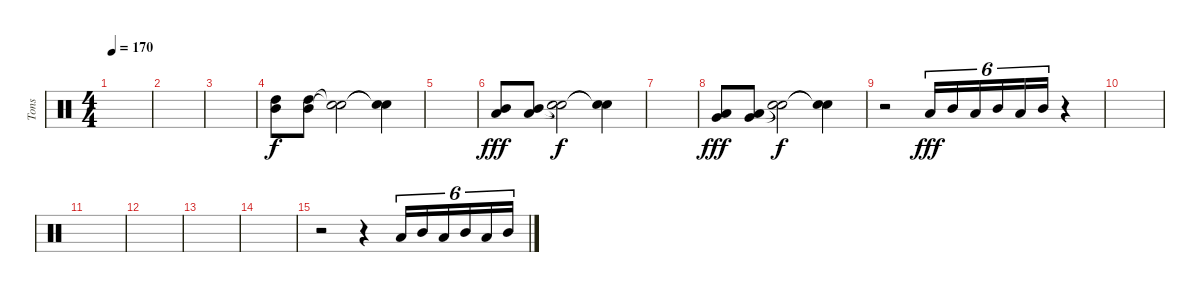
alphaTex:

\track ("Tons" "Tons") {instrument percussion}
\staff {score}
\articulation defaults
\ts (4 4)
\tempo 170
\clef neutral
\ks c
|
|
|
("High Tom (hit)" "Mid Tom (hit)").8 ("High Tom (hit)" "Mid Tom (hit)").8 ("Snare (hit)"{t} "Snare (hit)"{t}).2{dy f} ("Snare (hit)"{t} "Snare (hit)"{t}).4 |
|
("Mid Tom (hit)" "Low Tom (hit)").8{dy fff} ("Mid Tom (hit)" "Low Tom (hit)").8 ("Snare (hit)"{t} "Snare (hit)"{t}).2{dy f} ("Snare (hit)"{t} "Snare (hit)"{t}).4 |
|
("Low Tom (hit)" "Very Low Tom (hit)").8{dy fff} ("Low Tom (hit)" "Very Low Tom (hit)").8 ("Snare (hit)"{t} "Snare (hit)"{t}).2{dy f} ("Snare (hit)"{t} "Snare (hit)"{t}).4 |
r.2 "Low Tom (hit)".16{tu (6 4) dy fff} "Mid Tom (hit)".16{tu (6 4)} "Low Tom (hit)".16{tu (6 4)} "Mid Tom (hit)".16{tu (6 4)} "Low Tom (hit)".16{tu (6 4)} "Mid Tom (hit)".16{tu (6 4)} r.4 |
|
|
|
|
|
r.2 r.4 "Low Tom (hit)".16{tu (6 4)} "Mid Tom (hit)".16{tu (6 4)} "Low Tom (hit)".16{tu (6 4)} "Mid Tom (hit)".16{tu (6 4)} "Low Tom (hit)".16{tu (6 4)} "Mid Tom (hit)".16{tu (6 4)}
